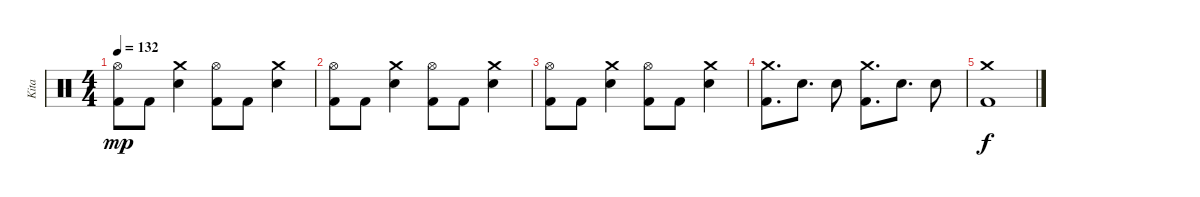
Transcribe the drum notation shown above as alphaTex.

\track ("Kita" "Kita") {instrument percussion}
\staff {score}
\articulation defaults
\ts (4 4)
\tempo 132
\clef neutral
\ks c
("Hi-Hat (open)" "Kick (hit) 2").8{dy mp} "Kick (hit) 2".8 ("Crash medium (hit)" "Snare (hit) 2").4 ("Hi-Hat (open)" "Kick (hit) 2").8 "Kick (hit) 2".8 ("Crash medium (hit)" "Snare (hit) 2").4 |
("Hi-Hat (open)" "Kick (hit) 2").8 "Kick (hit) 2".8 ("Crash medium (hit)" "Snare (hit) 2").4 ("Hi-Hat (open)" "Kick (hit) 2").8 "Kick (hit) 2".8 ("Crash medium (hit)" "Snare (hit) 2").4 |
("Hi-Hat (open)" "Kick (hit) 2").8 "Kick (hit) 2".8 ("Crash medium (hit)" "Snare (hit) 2").4 ("Hi-Hat (open)" "Kick (hit) 2").8 "Kick (hit) 2".8 ("Crash medium (hit)" "Snare (hit) 2").4 |
("Crash medium (hit)" "Kick (hit) 2").8{d} "Snare (hit) 2".8{d} "Snare (hit) 2".8 ("Crash medium (hit)" "Kick (hit) 2").8{d} "Snare (hit) 2".8{d} "Snare (hit) 2".8 |
("Crash medium (hit)" "Kick (hit) 2").1{dy f}
